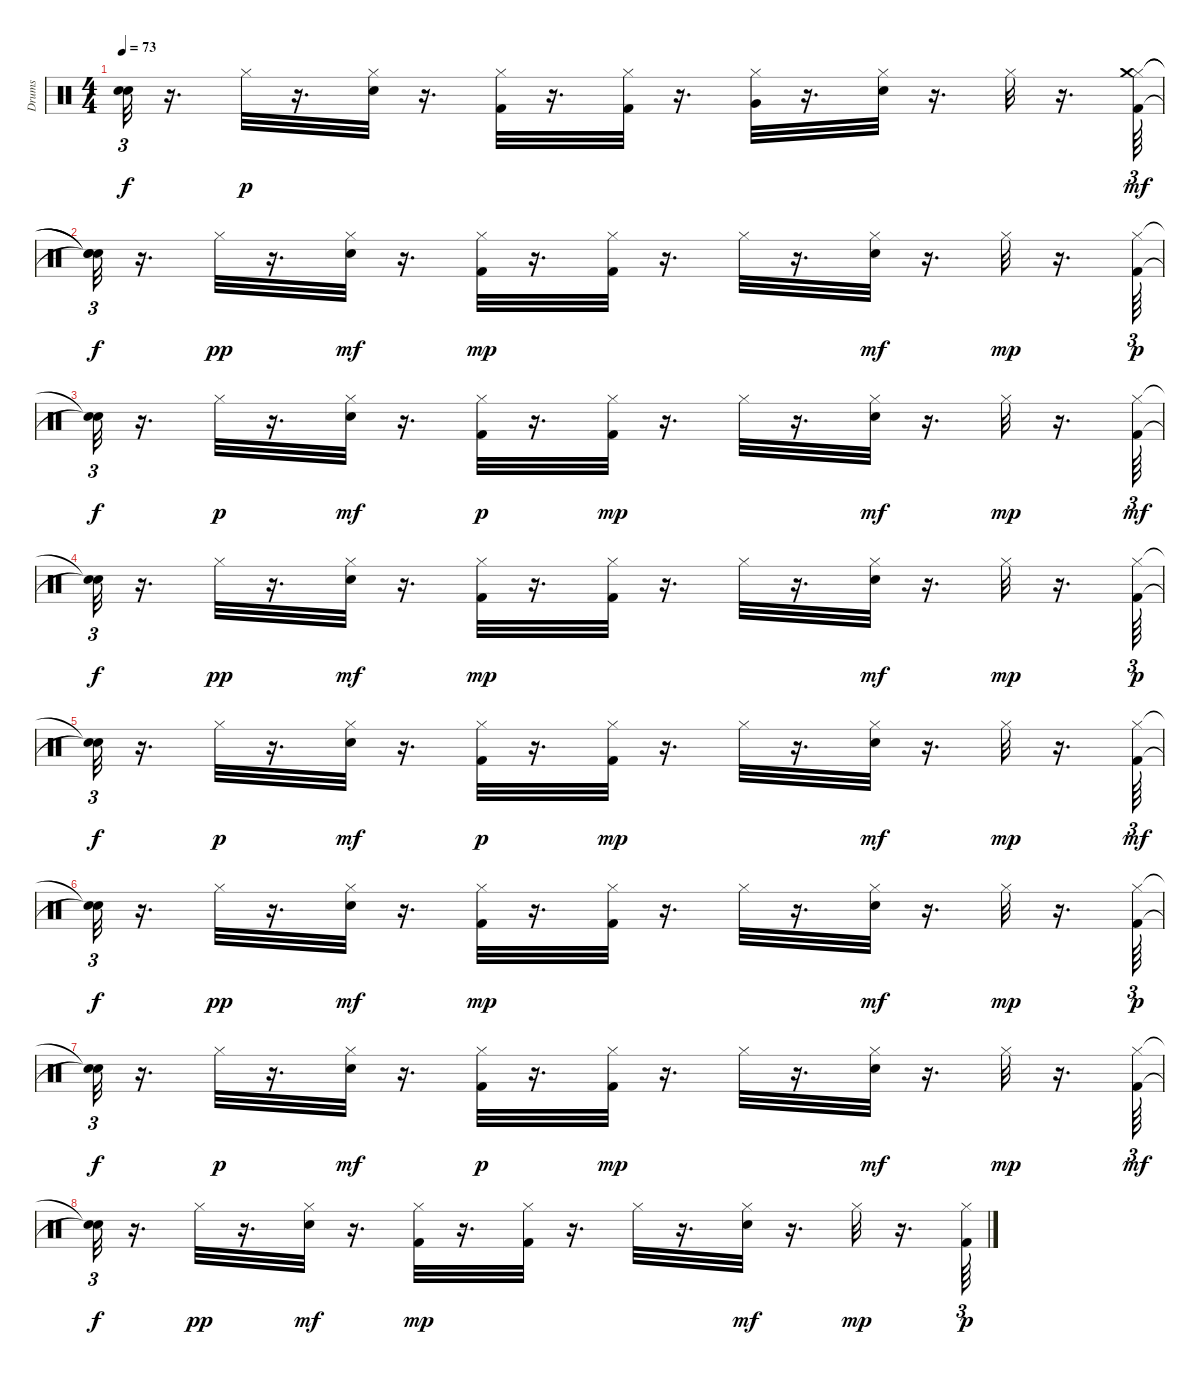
\track ("Drums" "Drums") {instrument percussion}
\staff {score}
\articulation defaults
\ts (4 4)
\tempo 73
\clef neutral
\ks c
("Snare (hit)"{t} "Snare (hit)"{t}).32{tu (3 2) dy f} r.16{d} "Hi-Hat (closed)".32{dy p} r.16{d} ("Snare (hit) 2" "Hi-Hat (closed)").32 r.16{d} ("Kick (hit) 2" "Hi-Hat (closed)").32 r.16{d} ("Kick (hit) 2" "Hi-Hat (closed)").32 r.16{d} ("Hi-Hat (closed)" "Very Low Tom (hit)").32 r.16{d} ("Snare (hit) 2" "Hi-Hat (closed)").32 r.16{d} "Hi-Hat (closed)".32 r.16{d} ("Kick (hit) 2" "Hi-Hat (closed)" "Crash medium (hit)").64{tu (3 2) dy mf} |
("Snare (hit)"{t} "Snare (hit)"{t} "Snare (hit)"{t}).32{tu (3 2) dy f} r.16{d} "Hi-Hat (closed)".32{dy pp} r.16{d} ("Snare (hit) 2" "Hi-Hat (closed)").32{dy mf} r.16{d} ("Kick (hit) 2" "Hi-Hat (closed)").32{dy mp} r.16{d} ("Kick (hit) 2" "Hi-Hat (closed)").32 r.16{d} "Hi-Hat (closed)".32 r.16{d} ("Snare (hit) 2" "Hi-Hat (closed)").32{dy mf} r.16{d} "Hi-Hat (closed)".32{dy mp} r.16{d} ("Kick (hit) 2" "Hi-Hat (closed)").64{tu (3 2) dy p} |
("Snare (hit)"{t} "Snare (hit)"{t}).32{tu (3 2) dy f} r.16{d} "Hi-Hat (closed)".32{dy p} r.16{d} ("Snare (hit) 2" "Hi-Hat (closed)").32{dy mf} r.16{d} ("Kick (hit) 2" "Hi-Hat (closed)").32{dy p} r.16{d} ("Kick (hit) 2" "Hi-Hat (closed)").32{dy mp} r.16{d} "Hi-Hat (closed)".32 r.16{d} ("Snare (hit) 2" "Hi-Hat (closed)").32{dy mf} r.16{d} "Hi-Hat (closed)".32{dy mp} r.16{d} ("Kick (hit) 2" "Hi-Hat (closed)").64{tu (3 2) dy mf} |
("Snare (hit)"{t} "Snare (hit)"{t}).32{tu (3 2) dy f} r.16{d} "Hi-Hat (closed)".32{dy pp} r.16{d} ("Snare (hit) 2" "Hi-Hat (closed)").32{dy mf} r.16{d} ("Kick (hit) 2" "Hi-Hat (closed)").32{dy mp} r.16{d} ("Kick (hit) 2" "Hi-Hat (closed)").32 r.16{d} "Hi-Hat (closed)".32 r.16{d} ("Snare (hit) 2" "Hi-Hat (closed)").32{dy mf} r.16{d} "Hi-Hat (closed)".32{dy mp} r.16{d} ("Kick (hit) 2" "Hi-Hat (closed)").64{tu (3 2) dy p} |
("Snare (hit)"{t} "Snare (hit)"{t}).32{tu (3 2) dy f} r.16{d} "Hi-Hat (closed)".32{dy p} r.16{d} ("Snare (hit) 2" "Hi-Hat (closed)").32{dy mf} r.16{d} ("Kick (hit) 2" "Hi-Hat (closed)").32{dy p} r.16{d} ("Kick (hit) 2" "Hi-Hat (closed)").32{dy mp} r.16{d} "Hi-Hat (closed)".32 r.16{d} ("Snare (hit) 2" "Hi-Hat (closed)").32{dy mf} r.16{d} "Hi-Hat (closed)".32{dy mp} r.16{d} ("Kick (hit) 2" "Hi-Hat (closed)").64{tu (3 2) dy mf} |
("Snare (hit)"{t} "Snare (hit)"{t}).32{tu (3 2) dy f} r.16{d} "Hi-Hat (closed)".32{dy pp} r.16{d} ("Snare (hit) 2" "Hi-Hat (closed)").32{dy mf} r.16{d} ("Kick (hit) 2" "Hi-Hat (closed)").32{dy mp} r.16{d} ("Kick (hit) 2" "Hi-Hat (closed)").32 r.16{d} "Hi-Hat (closed)".32 r.16{d} ("Snare (hit) 2" "Hi-Hat (closed)").32{dy mf} r.16{d} "Hi-Hat (closed)".32{dy mp} r.16{d} ("Kick (hit) 2" "Hi-Hat (closed)").64{tu (3 2) dy p} |
("Snare (hit)"{t} "Snare (hit)"{t}).32{tu (3 2) dy f} r.16{d} "Hi-Hat (closed)".32{dy p} r.16{d} ("Snare (hit) 2" "Hi-Hat (closed)").32{dy mf} r.16{d} ("Kick (hit) 2" "Hi-Hat (closed)").32{dy p} r.16{d} ("Kick (hit) 2" "Hi-Hat (closed)").32{dy mp} r.16{d} "Hi-Hat (closed)".32 r.16{d} ("Snare (hit) 2" "Hi-Hat (closed)").32{dy mf} r.16{d} "Hi-Hat (closed)".32{dy mp} r.16{d} ("Kick (hit) 2" "Hi-Hat (closed)").64{tu (3 2) dy mf} |
("Snare (hit)"{t} "Snare (hit)"{t}).32{tu (3 2) dy f} r.16{d} "Hi-Hat (closed)".32{dy pp} r.16{d} ("Snare (hit) 2" "Hi-Hat (closed)").32{dy mf} r.16{d} ("Kick (hit) 2" "Hi-Hat (closed)").32{dy mp} r.16{d} ("Kick (hit) 2" "Hi-Hat (closed)").32 r.16{d} "Hi-Hat (closed)".32 r.16{d} ("Snare (hit) 2" "Hi-Hat (closed)").32{dy mf} r.16{d} "Hi-Hat (closed)".32{dy mp} r.16{d} ("Kick (hit) 2" "Hi-Hat (closed)").64{tu (3 2) dy p}
